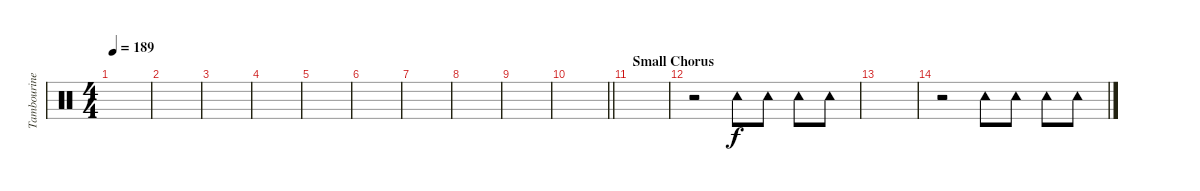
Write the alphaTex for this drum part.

\track ("Tambourine" "Tambourine") {instrument percussion}
\staff {score}
\articulation defaults
\ts (4 4)
\tempo 189
\clef neutral
\ks c
|
|
|
|
|
|
|
|
|
\barLineRight lightlight
|
\section ("" "Small Chorus")
|
r.2 "Tambourine (hit)".8 "Tambourine (hit)".8 "Tambourine (hit)".8 "Tambourine (hit)".8 |
|
r.2 "Tambourine (hit)".8 "Tambourine (hit)".8 "Tambourine (hit)".8 "Tambourine (hit)".8
